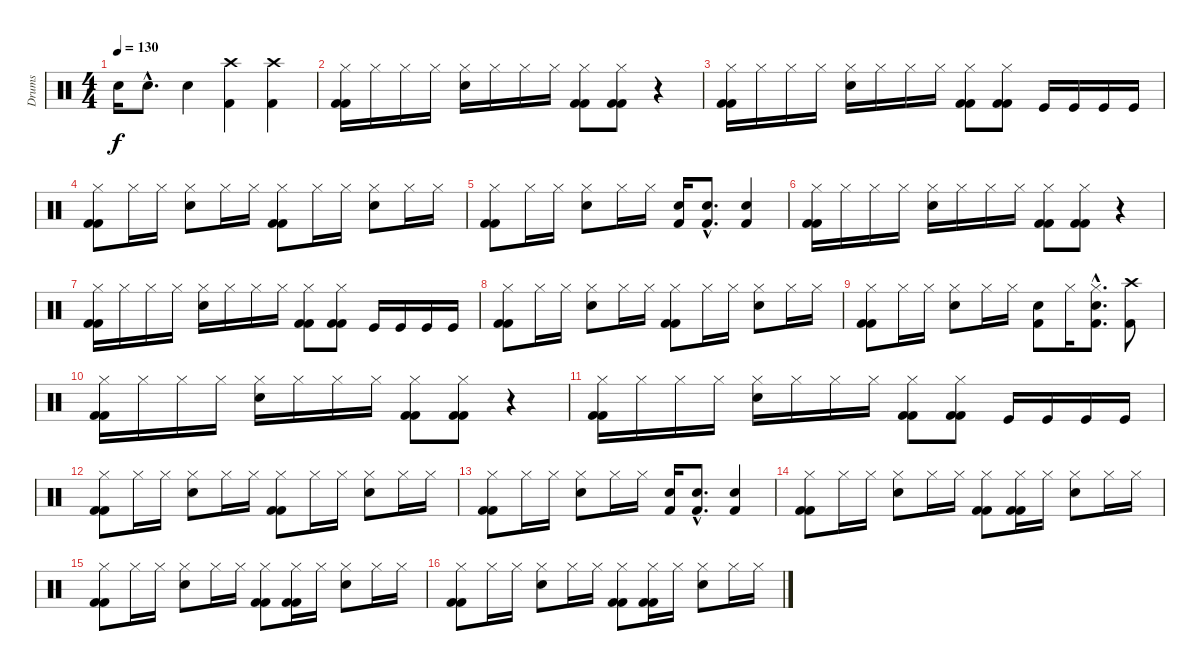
\track ("Drums" "Drums") {instrument percussion}
\staff {score}
\articulation defaults
\ts (4 4)
\tempo 130
\clef neutral
\ks c "Electric Snare (hit)".16{dy f} "Electric Snare (hit)"{hac}.8{d} "Electric Snare (hit)".4
("Crash high (hit)" "Kick (hit) 2").4 ("Crash high (hit)" "Kick (hit) 2").4 |
("Hi-Hat (closed)" "Kick (hit) 2" "Kick (hit) 2").16 "Hi-Hat (closed)".16 "Hi-Hat (closed)".16 "Hi-Hat (closed)".16 ("Hi-Hat (closed)" "Electric Snare (hit)").16 "Hi-Hat (closed)".16 "Hi-Hat (closed)".16 "Hi-Hat (closed)".16 ("Hi-Hat (closed)" "Kick (hit) 2" "Kick (hit) 2").8 ("Hi-Hat (closed)" "Kick (hit) 2" "Kick (hit) 2").8 r.4 |
("Hi-Hat (closed)" "Kick (hit) 2" "Kick (hit) 2").16 "Hi-Hat (closed)".16 "Hi-Hat (closed)".16 "Hi-Hat (closed)".16 ("Hi-Hat (closed)" "Electric Snare (hit)").16 "Hi-Hat (closed)".16 "Hi-Hat (closed)".16 "Hi-Hat (closed)".16 ("Hi-Hat (closed)" "Kick (hit) 2" "Kick (hit) 2").8 ("Hi-Hat (closed)" "Kick (hit) 2" "Kick (hit) 2").8 "Kick (hit)".16 "Kick (hit)".16 "Kick (hit)".16 "Kick (hit)".16 |
("Hi-Hat (closed)" "Kick (hit) 2" "Kick (hit) 2").8 "Hi-Hat (closed)".16 "Hi-Hat (closed)".16 ("Hi-Hat (closed)" "Electric Snare (hit)").8 "Hi-Hat (closed)".16 "Hi-Hat (closed)".16 ("Hi-Hat (closed)" "Kick (hit) 2" "Kick (hit) 2").8 "Hi-Hat (closed)".16 "Hi-Hat (closed)".16 ("Hi-Hat (closed)" "Electric Snare (hit)").8 "Hi-Hat (closed)".16 "Hi-Hat (closed)".16 |
("Hi-Hat (closed)" "Kick (hit) 2" "Kick (hit) 2").8 "Hi-Hat (closed)".16 "Hi-Hat (closed)".16 ("Hi-Hat (closed)" "Electric Snare (hit)").8 "Hi-Hat (closed)".16 "Hi-Hat (closed)".16 ("Electric Snare (hit)" "Kick (hit) 2").16 ("Electric Snare (hit)"{hac} "Kick (hit) 2"{hac}).8{d} ("Electric Snare (hit)" "Kick (hit) 2").4 |
("Hi-Hat (closed)" "Kick (hit) 2" "Kick (hit) 2").16 "Hi-Hat (closed)".16 "Hi-Hat (closed)".16 "Hi-Hat (closed)".16 ("Hi-Hat (closed)" "Electric Snare (hit)").16 "Hi-Hat (closed)".16 "Hi-Hat (closed)".16 "Hi-Hat (closed)".16 ("Hi-Hat (closed)" "Kick (hit) 2" "Kick (hit) 2").8 ("Hi-Hat (closed)" "Kick (hit) 2" "Kick (hit) 2").8 r.4 |
("Hi-Hat (closed)" "Kick (hit) 2" "Kick (hit) 2").16 "Hi-Hat (closed)".16 "Hi-Hat (closed)".16 "Hi-Hat (closed)".16 ("Hi-Hat (closed)" "Electric Snare (hit)").16 "Hi-Hat (closed)".16 "Hi-Hat (closed)".16 "Hi-Hat (closed)".16 ("Hi-Hat (closed)" "Kick (hit) 2" "Kick (hit) 2").8 ("Hi-Hat (closed)" "Kick (hit) 2" "Kick (hit) 2").8 "Kick (hit)".16 "Kick (hit)".16 "Kick (hit)".16 "Kick (hit)".16 |
("Hi-Hat (closed)" "Kick (hit) 2" "Kick (hit) 2").8 "Hi-Hat (closed)".16 "Hi-Hat (closed)".16 ("Hi-Hat (closed)" "Electric Snare (hit)").8 "Hi-Hat (closed)".16 "Hi-Hat (closed)".16 ("Hi-Hat (closed)" "Kick (hit) 2" "Kick (hit) 2").8 "Hi-Hat (closed)".16 "Hi-Hat (closed)".16 ("Hi-Hat (closed)" "Electric Snare (hit)").8 "Hi-Hat (closed)".16 "Hi-Hat (closed)".16 |
("Hi-Hat (closed)" "Kick (hit) 2" "Kick (hit) 2").8 "Hi-Hat (closed)".16 "Hi-Hat (closed)".16 ("Hi-Hat (closed)" "Electric Snare (hit)").8 "Hi-Hat (closed)".16 "Hi-Hat (closed)".16 ("Electric Snare (hit)" "Kick (hit) 2").8 "Hi-Hat (closed)".16 ("Hi-Hat (closed)"{hac} "Electric Snare (hit)"{hac} "Kick (hit) 2"{hac}).8{d} ("Crash high (hit)" "Kick (hit) 2").8 |
("Hi-Hat (closed)" "Kick (hit) 2" "Kick (hit) 2").16 "Hi-Hat (closed)".16 "Hi-Hat (closed)".16 "Hi-Hat (closed)".16 ("Hi-Hat (closed)" "Electric Snare (hit)").16 "Hi-Hat (closed)".16 "Hi-Hat (closed)".16 "Hi-Hat (closed)".16 ("Hi-Hat (closed)" "Kick (hit) 2" "Kick (hit) 2").8 ("Hi-Hat (closed)" "Kick (hit) 2" "Kick (hit) 2").8 r.4 |
("Hi-Hat (closed)" "Kick (hit) 2" "Kick (hit) 2").16 "Hi-Hat (closed)".16 "Hi-Hat (closed)".16 "Hi-Hat (closed)".16 ("Hi-Hat (closed)" "Electric Snare (hit)").16 "Hi-Hat (closed)".16 "Hi-Hat (closed)".16 "Hi-Hat (closed)".16 ("Hi-Hat (closed)" "Kick (hit) 2" "Kick (hit) 2").8 ("Hi-Hat (closed)" "Kick (hit) 2" "Kick (hit) 2").8 "Kick (hit)".16 "Kick (hit)".16 "Kick (hit)".16 "Kick (hit)".16 |
("Hi-Hat (closed)" "Kick (hit) 2" "Kick (hit) 2").8 "Hi-Hat (closed)".16 "Hi-Hat (closed)".16 ("Hi-Hat (closed)" "Electric Snare (hit)").8 "Hi-Hat (closed)".16 "Hi-Hat (closed)".16 ("Hi-Hat (closed)" "Kick (hit) 2" "Kick (hit) 2").8 "Hi-Hat (closed)".16 "Hi-Hat (closed)".16 ("Hi-Hat (closed)" "Electric Snare (hit)").8 "Hi-Hat (closed)".16 "Hi-Hat (closed)".16 |
("Hi-Hat (closed)" "Kick (hit) 2" "Kick (hit) 2").8 "Hi-Hat (closed)".16 "Hi-Hat (closed)".16 ("Hi-Hat (closed)" "Electric Snare (hit)").8 "Hi-Hat (closed)".16 "Hi-Hat (closed)".16 ("Electric Snare (hit)" "Kick (hit) 2").16 ("Electric Snare (hit)"{hac} "Kick (hit) 2"{hac}).8{d} ("Electric Snare (hit)" "Kick (hit) 2").4 |
("Hi-Hat (closed)" "Kick (hit) 2" "Kick (hit) 2").8 "Hi-Hat (closed)".16 "Hi-Hat (closed)".16 ("Hi-Hat (closed)" "Electric Snare (hit)").8 "Hi-Hat (closed)".16 "Hi-Hat (closed)".16 ("Hi-Hat (closed)" "Kick (hit) 2" "Kick (hit) 2").8 ("Hi-Hat (closed)" "Kick (hit) 2" "Kick (hit) 2").16 "Hi-Hat (closed)".16 ("Hi-Hat (closed)" "Electric Snare (hit)").8 "Hi-Hat (closed)".16 "Hi-Hat (closed)".16 |
("Hi-Hat (closed)" "Kick (hit) 2" "Kick (hit) 2").8 "Hi-Hat (closed)".16 "Hi-Hat (closed)".16 ("Hi-Hat (closed)" "Electric Snare (hit)").8 "Hi-Hat (closed)".16 "Hi-Hat (closed)".16 ("Hi-Hat (closed)" "Kick (hit) 2" "Kick (hit) 2").8 ("Hi-Hat (closed)" "Kick (hit) 2" "Kick (hit) 2").16 "Hi-Hat (closed)".16 ("Hi-Hat (closed)" "Electric Snare (hit)").8 "Hi-Hat (closed)".16 "Hi-Hat (closed)".16 |
("Hi-Hat (closed)" "Kick (hit) 2" "Kick (hit) 2").8 "Hi-Hat (closed)".16 "Hi-Hat (closed)".16 ("Hi-Hat (closed)" "Electric Snare (hit)").8 "Hi-Hat (closed)".16 "Hi-Hat (closed)".16 ("Hi-Hat (closed)" "Kick (hit) 2" "Kick (hit) 2").8 ("Hi-Hat (closed)" "Kick (hit) 2" "Kick (hit) 2").16 "Hi-Hat (closed)".16 ("Hi-Hat (closed)" "Electric Snare (hit)").8 "Hi-Hat (closed)".16 "Hi-Hat (closed)".16
